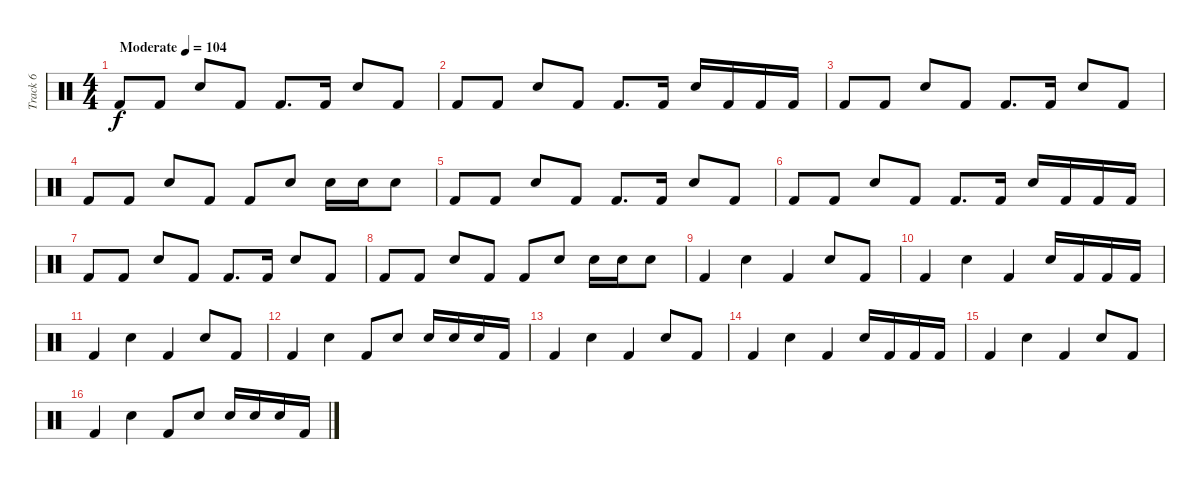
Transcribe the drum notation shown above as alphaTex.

\track ("Track 6" "Track 6") {instrument percussion}
\staff {score}
\articulation defaults
\ts (4 4)
\tempo (104 "Moderate")
\clef neutral
\ks c "Kick (hit) 2".8{dy f} "Kick (hit) 2".8 "Electric Snare (hit)".8 "Kick (hit) 2".8 "Kick (hit) 2".8{d} "Kick (hit) 2".16 "Electric Snare (hit)".8 "Kick (hit) 2".8
|
"Kick (hit) 2".8 "Kick (hit) 2".8 "Electric Snare (hit)".8 "Kick (hit) 2".8 "Kick (hit) 2".8{d} "Kick (hit) 2".16 "Electric Snare (hit)".16 "Kick (hit) 2".16 "Kick (hit) 2".16 "Kick (hit) 2".16 |
"Kick (hit) 2".8 "Kick (hit) 2".8 "Electric Snare (hit)".8 "Kick (hit) 2".8 "Kick (hit) 2".8{d} "Kick (hit) 2".16 "Electric Snare (hit)".8 "Kick (hit) 2".8 |
"Kick (hit) 2".8 "Kick (hit) 2".8 "Electric Snare (hit)".8 "Kick (hit) 2".8 "Kick (hit) 2".8 "Electric Snare (hit)".8 "Electric Snare (hit)".16 "Electric Snare (hit)".16 "Electric Snare (hit)".8 |
"Kick (hit) 2".8 "Kick (hit) 2".8 "Electric Snare (hit)".8 "Kick (hit) 2".8 "Kick (hit) 2".8{d} "Kick (hit) 2".16 "Electric Snare (hit)".8 "Kick (hit) 2".8 |
"Kick (hit) 2".8 "Kick (hit) 2".8 "Electric Snare (hit)".8 "Kick (hit) 2".8 "Kick (hit) 2".8{d} "Kick (hit) 2".16 "Electric Snare (hit)".16 "Kick (hit) 2".16 "Kick (hit) 2".16 "Kick (hit) 2".16 |
"Kick (hit) 2".8 "Kick (hit) 2".8 "Electric Snare (hit)".8 "Kick (hit) 2".8 "Kick (hit) 2".8{d} "Kick (hit) 2".16 "Electric Snare (hit)".8 "Kick (hit) 2".8 |
"Kick (hit) 2".8 "Kick (hit) 2".8 "Electric Snare (hit)".8 "Kick (hit) 2".8 "Kick (hit) 2".8 "Electric Snare (hit)".8 "Electric Snare (hit)".16 "Electric Snare (hit)".16 "Electric Snare (hit)".8 |
"Kick (hit) 2".4 "Electric Snare (hit)".4 "Kick (hit) 2".4 "Electric Snare (hit)".8 "Kick (hit) 2".8 |
"Kick (hit) 2".4 "Electric Snare (hit)".4 "Kick (hit) 2".4 "Electric Snare (hit)".16 "Kick (hit) 2".16 "Kick (hit) 2".16 "Kick (hit) 2".16 |
"Kick (hit) 2".4 "Electric Snare (hit)".4 "Kick (hit) 2".4 "Electric Snare (hit)".8 "Kick (hit) 2".8 |
"Kick (hit) 2".4 "Electric Snare (hit)".4 "Kick (hit) 2".8 "Electric Snare (hit)".8 "Electric Snare (hit)".16 "Electric Snare (hit)".16 "Electric Snare (hit)".16 "Kick (hit) 2".16 |
"Kick (hit) 2".4 "Electric Snare (hit)".4 "Kick (hit) 2".4 "Electric Snare (hit)".8 "Kick (hit) 2".8 |
"Kick (hit) 2".4 "Electric Snare (hit)".4 "Kick (hit) 2".4 "Electric Snare (hit)".16 "Kick (hit) 2".16 "Kick (hit) 2".16 "Kick (hit) 2".16 |
"Kick (hit) 2".4 "Electric Snare (hit)".4 "Kick (hit) 2".4 "Electric Snare (hit)".8 "Kick (hit) 2".8 |
"Kick (hit) 2".4 "Electric Snare (hit)".4 "Kick (hit) 2".8 "Electric Snare (hit)".8 "Electric Snare (hit)".16 "Electric Snare (hit)".16 "Electric Snare (hit)".16 "Kick (hit) 2".16
